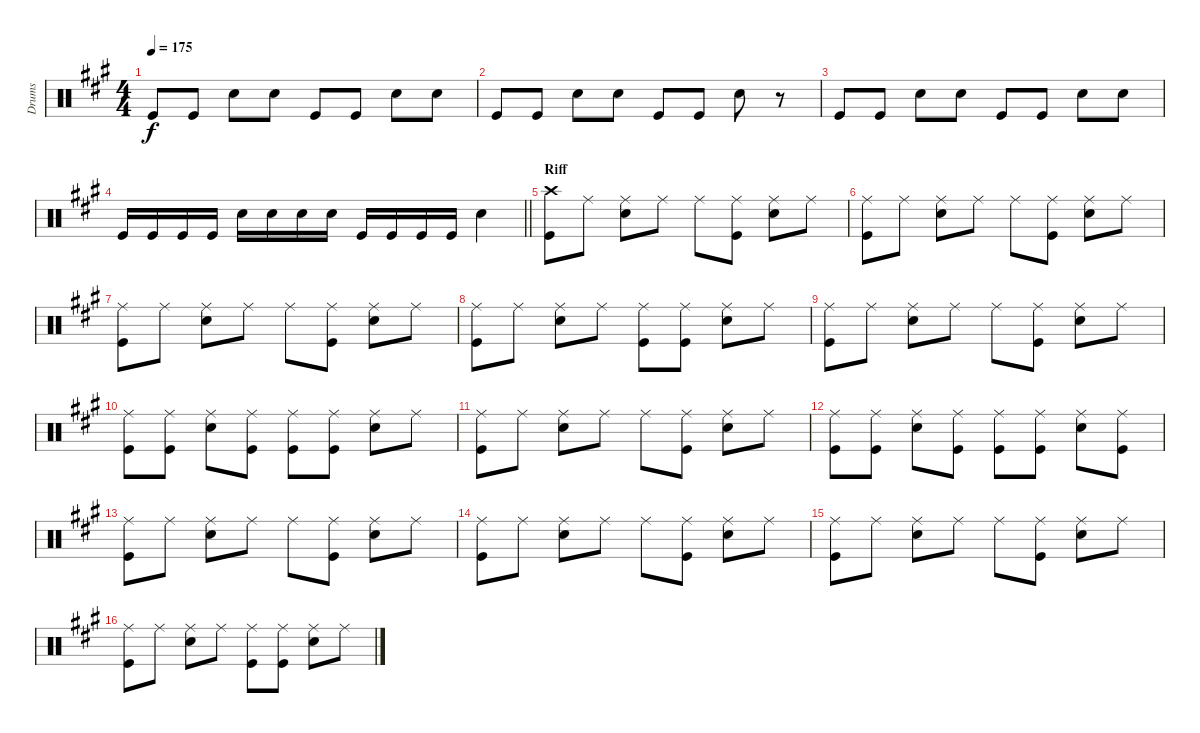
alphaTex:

\track ("Drums" "Drums") {instrument percussion}
\staff {score}
\articulation defaults
\ts (4 4)
\tempo 175
\clef neutral
\ks f#minor "Kick (hit)".8{dy f} "Kick (hit)".8 "Snare (hit) 2".8 "Snare (hit) 2".8 "Kick (hit)".8 "Kick (hit)".8 "Snare (hit) 2".8 "Snare (hit) 2".8
|
"Kick (hit)".8 "Kick (hit)".8 "Snare (hit) 2".8 "Snare (hit) 2".8 "Kick (hit)".8 "Kick (hit)".8 "Snare (hit) 2".8 r.8 |
"Kick (hit)".8 "Kick (hit)".8 "Snare (hit) 2".8 "Snare (hit) 2".8 "Kick (hit)".8 "Kick (hit)".8 "Snare (hit) 2".8 "Snare (hit) 2".8 |
\barLineRight lightlight "Kick (hit)".16 "Kick (hit)".16 "Kick (hit)".16 "Kick (hit)".16 "Snare (hit) 2".16 "Snare (hit) 2".16 "Snare (hit) 2".16 "Snare (hit) 2".16 "Kick (hit)".16 "Kick (hit)".16 "Kick (hit)".16 "Kick (hit)".16 "Snare (hit) 2".4
|
\section ("" "Riff")
("Crash high (hit)" "Kick (hit)").8 "Ride (middle)".8 ("Ride (middle)" "Snare (hit) 2").8 "Ride (middle)".8 "Ride (middle)".8 ("Ride (middle)" "Kick (hit)").8 ("Ride (middle)" "Snare (hit) 2").8 "Ride (middle)".8 |
("Ride (middle)" "Kick (hit)").8 "Ride (middle)".8 ("Ride (middle)" "Snare (hit) 2").8 "Ride (middle)".8 "Ride (middle)".8 ("Ride (middle)" "Kick (hit)").8 ("Ride (middle)" "Snare (hit) 2").8 "Ride (middle)".8 |
("Ride (middle)" "Kick (hit)").8 "Ride (middle)".8 ("Ride (middle)" "Snare (hit) 2").8 "Ride (middle)".8 "Ride (middle)".8 ("Ride (middle)" "Kick (hit)").8 ("Ride (middle)" "Snare (hit) 2").8 "Ride (middle)".8 |
("Ride (middle)" "Kick (hit)").8 "Ride (middle)".8 ("Ride (middle)" "Snare (hit) 2").8 "Ride (middle)".8 ("Ride (middle)" "Kick (hit)").8 ("Ride (middle)" "Kick (hit)").8 ("Ride (middle)" "Snare (hit) 2").8 "Ride (middle)".8 |
("Ride (middle)" "Kick (hit)").8 "Ride (middle)".8 ("Ride (middle)" "Snare (hit) 2").8 "Ride (middle)".8 "Ride (middle)".8 ("Ride (middle)" "Kick (hit)").8 ("Ride (middle)" "Snare (hit) 2").8 "Ride (middle)".8 |
("Ride (middle)" "Kick (hit)").8 ("Ride (middle)" "Kick (hit)").8 ("Ride (middle)" "Snare (hit) 2").8 ("Ride (middle)" "Kick (hit)").8 ("Ride (middle)" "Kick (hit)").8 ("Ride (middle)" "Kick (hit)").8 ("Ride (middle)" "Snare (hit) 2").8 "Ride (middle)".8 |
("Ride (middle)" "Kick (hit)").8 "Ride (middle)".8 ("Ride (middle)" "Snare (hit) 2").8 "Ride (middle)".8 "Ride (middle)".8 ("Ride (middle)" "Kick (hit)").8 ("Ride (middle)" "Snare (hit) 2").8 "Ride (middle)".8 |
("Ride (middle)" "Kick (hit)").8 ("Ride (middle)" "Kick (hit)").8 ("Ride (middle)" "Snare (hit) 2").8 ("Ride (middle)" "Kick (hit)").8 ("Ride (middle)" "Kick (hit)").8 ("Ride (middle)" "Kick (hit)").8 ("Ride (middle)" "Snare (hit) 2").8 ("Ride (middle)" "Kick (hit)").8 |
("Ride (middle)" "Kick (hit)").8 "Ride (middle)".8 ("Ride (middle)" "Snare (hit) 2").8 "Ride (middle)".8 "Ride (middle)".8 ("Ride (middle)" "Kick (hit)").8 ("Ride (middle)" "Snare (hit) 2").8 "Ride (middle)".8 |
("Ride (middle)" "Kick (hit)").8 "Ride (middle)".8 ("Ride (middle)" "Snare (hit) 2").8 "Ride (middle)".8 "Ride (middle)".8 ("Ride (middle)" "Kick (hit)").8 ("Ride (middle)" "Snare (hit) 2").8 "Ride (middle)".8 |
("Ride (middle)" "Kick (hit)").8 "Ride (middle)".8 ("Ride (middle)" "Snare (hit) 2").8 "Ride (middle)".8 "Ride (middle)".8 ("Ride (middle)" "Kick (hit)").8 ("Ride (middle)" "Snare (hit) 2").8 "Ride (middle)".8 |
("Ride (middle)" "Kick (hit)").8 "Ride (middle)".8 ("Ride (middle)" "Snare (hit) 2").8 "Ride (middle)".8 ("Ride (middle)" "Kick (hit)").8 ("Ride (middle)" "Kick (hit)").8 ("Ride (middle)" "Snare (hit) 2").8 "Ride (middle)".8
